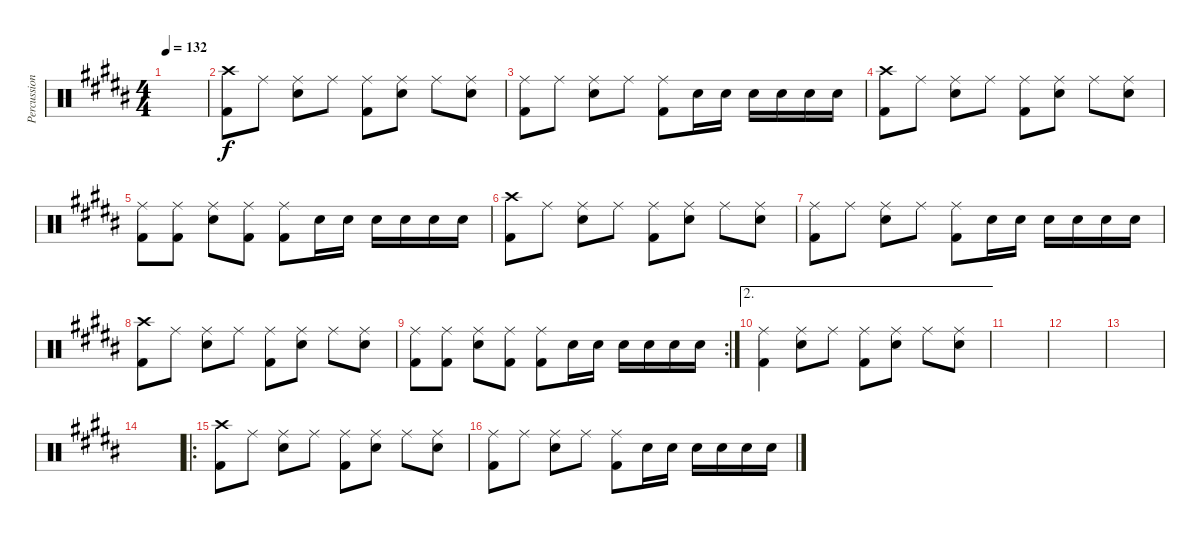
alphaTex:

\track ("Percussions (Will Champion)" "Percussion") {instrument percussion}
\staff {score}
\articulation defaults
\ts (4 4)
\tempo 132
\clef neutral
\ks b
|
("Crash high (hit)" "Kick (hit) 2").8 "Ride (middle)".8 ("Snare (hit) 2" "Ride (middle)").8 "Ride (middle)".8 ("Kick (hit) 2" "Ride (middle)").8 ("Snare (hit) 2" "Ride (middle)").8 "Ride (middle)".8 ("Snare (hit) 2" "Ride (middle)").8 |
("Kick (hit) 2" "Ride (middle)").8 "Ride (middle)".8 ("Snare (hit) 2" "Ride (middle)").8 "Ride (middle)".8 ("Kick (hit) 2" "Ride (middle)").8 "Snare (hit) 2".16 "Snare (hit) 2".16 "Snare (hit) 2".16 "Snare (hit) 2".16 "Snare (hit) 2".16 "Snare (hit) 2".16 |
("Crash high (hit)" "Kick (hit) 2").8 "Ride (middle)".8 ("Snare (hit) 2" "Ride (middle)").8 "Ride (middle)".8 ("Kick (hit) 2" "Ride (middle)").8 ("Snare (hit) 2" "Ride (middle)").8 "Ride (middle)".8 ("Snare (hit) 2" "Ride (middle)").8 |
("Kick (hit) 2" "Ride (middle)").8 ("Kick (hit) 2" "Ride (middle)").8 ("Snare (hit) 2" "Ride (middle)").8 ("Kick (hit) 2" "Ride (middle)").8 ("Kick (hit) 2" "Ride (middle)").8 "Snare (hit) 2".16 "Snare (hit) 2".16 "Snare (hit) 2".16 "Snare (hit) 2".16 "Snare (hit) 2".16 "Snare (hit) 2".16 |
("Crash high (hit)" "Kick (hit) 2").8 "Ride (middle)".8 ("Snare (hit) 2" "Ride (middle)").8 "Ride (middle)".8 ("Kick (hit) 2" "Ride (middle)").8 ("Snare (hit) 2" "Ride (middle)").8 "Ride (middle)".8 ("Snare (hit) 2" "Ride (middle)").8 |
("Kick (hit) 2" "Ride (middle)").8 "Ride (middle)".8 ("Snare (hit) 2" "Ride (middle)").8 "Ride (middle)".8 ("Kick (hit) 2" "Ride (middle)").8 "Snare (hit) 2".16 "Snare (hit) 2".16 "Snare (hit) 2".16 "Snare (hit) 2".16 "Snare (hit) 2".16 "Snare (hit) 2".16 |
("Crash high (hit)" "Kick (hit) 2").8 "Ride (middle)".8 ("Snare (hit) 2" "Ride (middle)").8 "Ride (middle)".8 ("Kick (hit) 2" "Ride (middle)").8 ("Snare (hit) 2" "Ride (middle)").8 "Ride (middle)".8 ("Snare (hit) 2" "Ride (middle)").8 |
\rc 2
("Kick (hit) 2" "Ride (middle)").8 ("Kick (hit) 2" "Ride (middle)").8 ("Snare (hit) 2" "Ride (middle)").8 ("Kick (hit) 2" "Ride (middle)").8 ("Kick (hit) 2" "Ride (middle)").8 "Snare (hit) 2".16 "Snare (hit) 2".16 "Snare (hit) 2".16 "Snare (hit) 2".16 "Snare (hit) 2".16 "Snare (hit) 2".16 |
\ae 2
("Ride (middle)" "Kick (hit) 2").4 ("Ride (middle)" "Snare (hit) 2").8 "Ride (middle)".8 ("Ride (middle)" "Kick (hit) 2").8 ("Ride (middle)" "Snare (hit) 2").8 "Ride (middle)".8 ("Ride (middle)" "Snare (hit) 2").8 |
|
|
|
|
\ro
("Crash high (hit)" "Kick (hit) 2").8 "Ride (middle)".8 ("Snare (hit) 2" "Ride (middle)").8 "Ride (middle)".8 ("Kick (hit) 2" "Ride (middle)").8 ("Snare (hit) 2" "Ride (middle)").8 "Ride (middle)".8 ("Snare (hit) 2" "Ride (middle)").8 |
("Kick (hit) 2" "Ride (middle)").8 "Ride (middle)".8 ("Snare (hit) 2" "Ride (middle)").8 "Ride (middle)".8 ("Kick (hit) 2" "Ride (middle)").8 "Snare (hit) 2".16 "Snare (hit) 2".16 "Snare (hit) 2".16 "Snare (hit) 2".16 "Snare (hit) 2".16 "Snare (hit) 2".16
